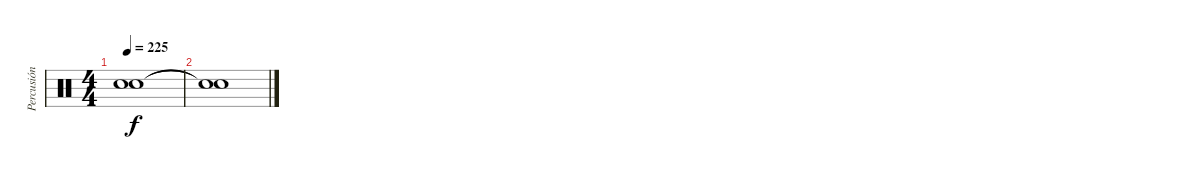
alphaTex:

\track ("Percusión" "Percusión") {instrument percussion}
\staff {score}
\articulation defaults
\ts (4 4)
\tempo 225
\clef neutral
\ks c
("Snare (hit)"{t} "Snare (hit)"{t}).1{dy f} |
("Snare (hit)"{t} "Snare (hit)"{t}).1
